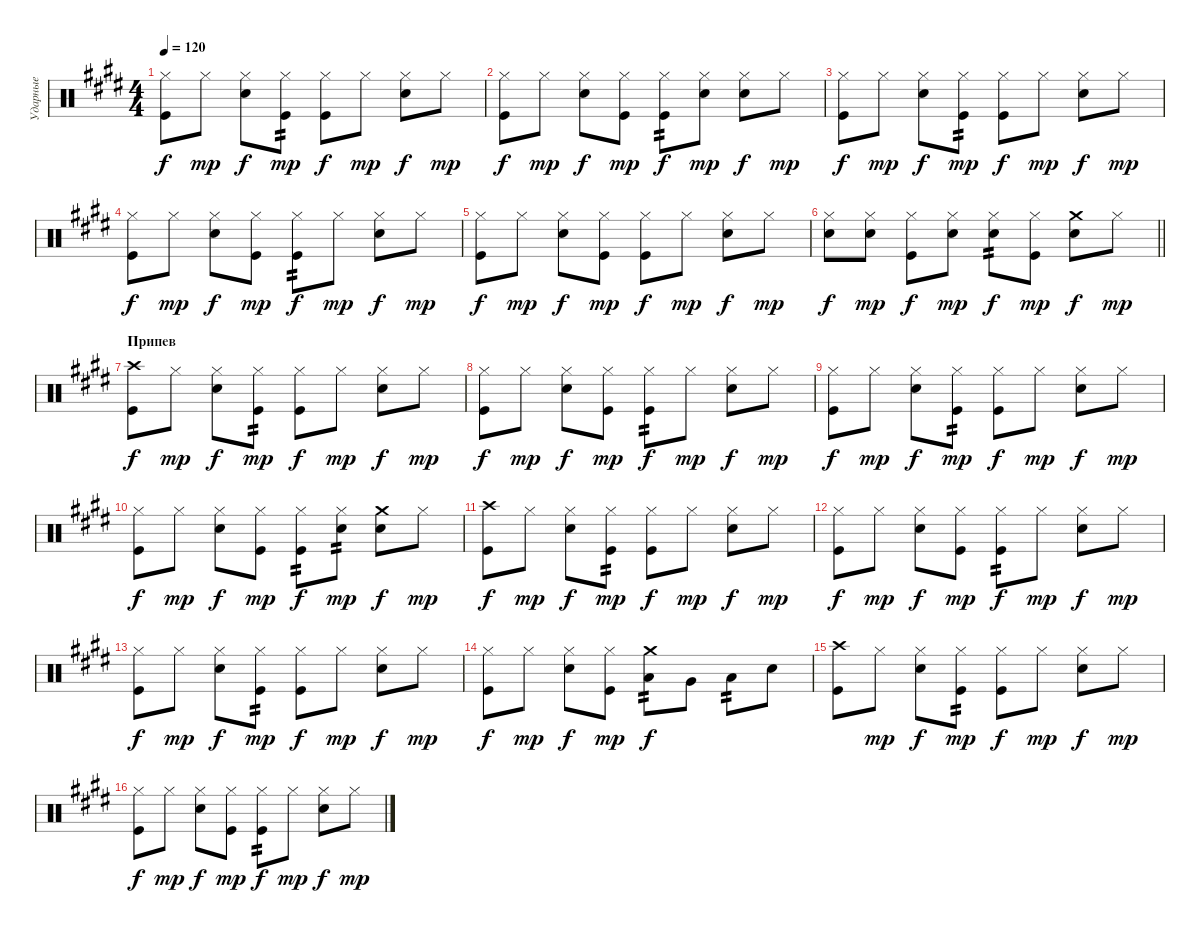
\track ("Ударные" "Ударные") {instrument percussion}
\staff {score}
\articulation defaults
\ts (4 4)
\tempo 120
\clef neutral
\ks e
("Hi-Hat (closed)" "Kick (hit)").8{dy f} "Hi-Hat (closed)".8{dy mp} ("Hi-Hat (closed)" "Snare (hit) 2").8{dy f} ("Hi-Hat (closed)" "Kick (hit)").8{tp 2 dy mp} ("Hi-Hat (closed)" "Kick (hit)").8{dy f} "Hi-Hat (closed)".8{dy mp} ("Hi-Hat (closed)" "Snare (hit) 2").8{dy f} "Hi-Hat (closed)".8{dy mp} |
("Hi-Hat (closed)" "Kick (hit)").8{dy f} "Hi-Hat (closed)".8{dy mp} ("Hi-Hat (closed)" "Snare (hit) 2").8{dy f} ("Hi-Hat (closed)" "Kick (hit)").8{dy mp} ("Hi-Hat (closed)" "Kick (hit)").8{tp 2 dy f} ("Hi-Hat (closed)" "Snare (hit) 2").8{dy mp} ("Hi-Hat (closed)" "Snare (hit) 2").8{dy f} "Hi-Hat (closed)".8{dy mp} |
("Hi-Hat (closed)" "Kick (hit)").8{dy f} "Hi-Hat (closed)".8{dy mp} ("Hi-Hat (closed)" "Snare (hit) 2").8{dy f} ("Hi-Hat (closed)" "Kick (hit)").8{tp 2 dy mp} ("Hi-Hat (closed)" "Kick (hit)").8{dy f} "Hi-Hat (closed)".8{dy mp} ("Hi-Hat (closed)" "Snare (hit) 2").8{dy f} "Hi-Hat (closed)".8{dy mp} |
("Hi-Hat (closed)" "Kick (hit)").8{dy f} "Hi-Hat (closed)".8{dy mp} ("Hi-Hat (closed)" "Snare (hit) 2").8{dy f} ("Hi-Hat (closed)" "Kick (hit)").8{dy mp} ("Hi-Hat (closed)" "Kick (hit)").8{tp 2 dy f} "Hi-Hat (closed)".8{dy mp} ("Hi-Hat (closed)" "Snare (hit) 2").8{dy f} "Hi-Hat (closed)".8{dy mp} |
("Hi-Hat (closed)" "Kick (hit)").8{dy f} "Hi-Hat (closed)".8{dy mp} ("Hi-Hat (closed)" "Snare (hit) 2").8{dy f} ("Hi-Hat (closed)" "Kick (hit)").8{dy mp} ("Hi-Hat (closed)" "Kick (hit)").8{dy f} "Hi-Hat (closed)".8{dy mp} ("Hi-Hat (closed)" "Snare (hit) 2").8{dy f} "Hi-Hat (closed)".8{dy mp} |
\barLineRight lightlight
("Hi-Hat (closed)" "Snare (hit) 2").8{dy f} ("Hi-Hat (closed)" "Snare (hit) 2").8{dy mp} ("Hi-Hat (closed)" "Kick (hit)").8{dy f} ("Hi-Hat (closed)" "Snare (hit) 2").8{dy mp} ("Hi-Hat (closed)" "Snare (hit) 2").8{tp 2 dy f} ("Hi-Hat (closed)" "Kick (hit)").8{dy mp} ("Crash medium (hit)" "Snare (hit) 2").8{dy f} "Hi-Hat (closed)".8{dy mp} |
\section ("" "Припев")
("Crash high (hit)" "Kick (hit)").8{dy f} "Hi-Hat (closed)".8{dy mp} ("Hi-Hat (closed)" "Snare (hit) 2").8{dy f} ("Hi-Hat (closed)" "Kick (hit)").8{tp 2 dy mp} ("Hi-Hat (closed)" "Kick (hit)").8{dy f} "Hi-Hat (closed)".8{dy mp} ("Hi-Hat (closed)" "Snare (hit) 2").8{dy f} "Hi-Hat (closed)".8{dy mp} |
("Hi-Hat (closed)" "Kick (hit)").8{dy f} "Hi-Hat (closed)".8{dy mp} ("Hi-Hat (closed)" "Snare (hit) 2").8{dy f} ("Hi-Hat (closed)" "Kick (hit)").8{dy mp} ("Hi-Hat (closed)" "Kick (hit)").8{tp 2 dy f} "Hi-Hat (closed)".8{dy mp} ("Hi-Hat (closed)" "Snare (hit) 2").8{dy f} "Hi-Hat (closed)".8{dy mp} |
("Hi-Hat (closed)" "Kick (hit)").8{dy f} "Hi-Hat (closed)".8{dy mp} ("Hi-Hat (closed)" "Snare (hit) 2").8{dy f} ("Hi-Hat (closed)" "Kick (hit)").8{tp 2 dy mp} ("Hi-Hat (closed)" "Kick (hit)").8{dy f} "Hi-Hat (closed)".8{dy mp} ("Hi-Hat (closed)" "Snare (hit) 2").8{dy f} "Hi-Hat (closed)".8{dy mp} |
("Hi-Hat (closed)" "Kick (hit)").8{dy f} "Hi-Hat (closed)".8{dy mp} ("Hi-Hat (closed)" "Snare (hit) 2").8{dy f} ("Hi-Hat (closed)" "Kick (hit)").8{dy mp} ("Hi-Hat (closed)" "Kick (hit)").8{tp 2 dy f} ("Hi-Hat (closed)" "Snare (hit) 2").8{tp 2 dy mp} ("Crash medium (hit)" "Snare (hit) 2").8{dy f} "Hi-Hat (closed)".8{dy mp} |
("Crash high (hit)" "Kick (hit)").8{dy f} "Hi-Hat (closed)".8{dy mp} ("Hi-Hat (closed)" "Snare (hit) 2").8{dy f} ("Hi-Hat (closed)" "Kick (hit)").8{tp 2 dy mp} ("Hi-Hat (closed)" "Kick (hit)").8{dy f} "Hi-Hat (closed)".8{dy mp} ("Hi-Hat (closed)" "Snare (hit) 2").8{dy f} "Hi-Hat (closed)".8{dy mp} |
("Hi-Hat (closed)" "Kick (hit)").8{dy f} "Hi-Hat (closed)".8{dy mp} ("Hi-Hat (closed)" "Snare (hit) 2").8{dy f} ("Hi-Hat (closed)" "Kick (hit)").8{dy mp} ("Hi-Hat (closed)" "Kick (hit)").8{tp 2 dy f} "Hi-Hat (closed)".8{dy mp} ("Hi-Hat (closed)" "Snare (hit) 2").8{dy f} "Hi-Hat (closed)".8{dy mp} |
("Hi-Hat (closed)" "Kick (hit)").8{dy f} "Hi-Hat (closed)".8{dy mp} ("Hi-Hat (closed)" "Snare (hit) 2").8{dy f} ("Hi-Hat (closed)" "Kick (hit)").8{tp 2 dy mp} ("Hi-Hat (closed)" "Kick (hit)").8{dy f} "Hi-Hat (closed)".8{dy mp} ("Hi-Hat (closed)" "Snare (hit) 2").8{dy f} "Hi-Hat (closed)".8{dy mp} |
("Hi-Hat (closed)" "Kick (hit)").8{dy f} "Hi-Hat (closed)".8{dy mp} ("Hi-Hat (closed)" "Snare (hit) 2").8{dy f} ("Hi-Hat (closed)" "Kick (hit)").8{dy mp} ("Crash medium (hit)" "Low Tom (hit)").8{tp 2 dy f} "Very Low Tom (hit)".8 "Low Tom (hit)".8{tp 2} "Snare (hit) 2".8 |
("Crash high (hit)" "Kick (hit)").8 "Hi-Hat (closed)".8{dy mp} ("Hi-Hat (closed)" "Snare (hit) 2").8{dy f} ("Hi-Hat (closed)" "Kick (hit)").8{tp 2 dy mp} ("Hi-Hat (closed)" "Kick (hit)").8{dy f} "Hi-Hat (closed)".8{dy mp} ("Hi-Hat (closed)" "Snare (hit) 2").8{dy f} "Hi-Hat (closed)".8{dy mp} |
("Hi-Hat (closed)" "Kick (hit)").8{dy f} "Hi-Hat (closed)".8{dy mp} ("Hi-Hat (closed)" "Snare (hit) 2").8{dy f} ("Hi-Hat (closed)" "Kick (hit)").8{dy mp} ("Hi-Hat (closed)" "Kick (hit)").8{tp 2 dy f} "Hi-Hat (closed)".8{dy mp} ("Hi-Hat (closed)" "Snare (hit) 2").8{dy f} "Hi-Hat (closed)".8{dy mp}
